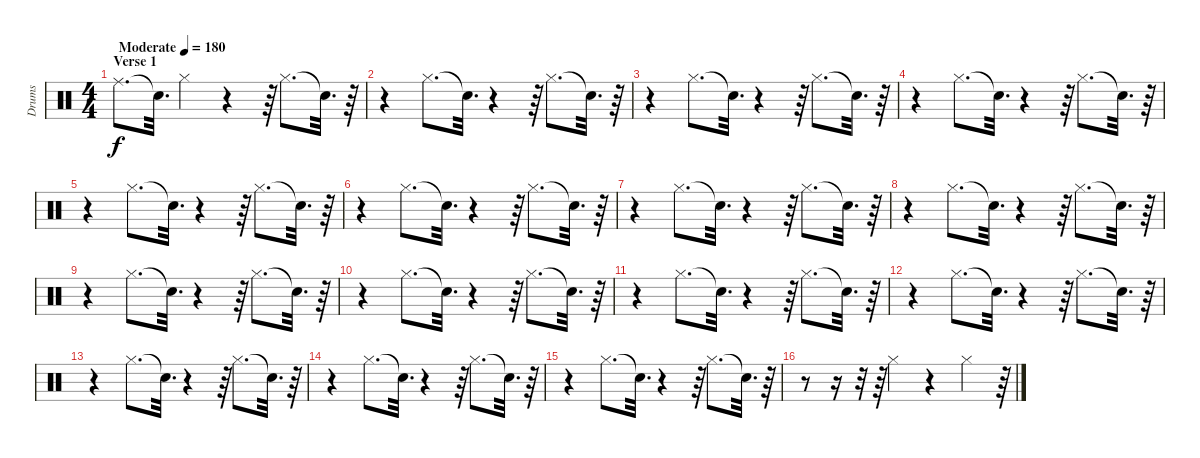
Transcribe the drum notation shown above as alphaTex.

\track ("Drums" "Drums") {instrument percussion}
\staff {score}
\articulation defaults
\ts (4 4)
\section ("" "Verse 1")
\tempo (180 "Moderate")
\clef neutral
\ks c "Ride (middle)".8{d dy f} "Snare (hit)"{t}.32{d} "Hi-Hat (closed)".4
r.4 r.64 "Hi-Hat (closed)".8{d} "Snare (hit)"{t}.32{d} r.64 |
r.4 "Hi-Hat (closed)".8{d} "Snare (hit)"{t}.32{d} r.4 r.64 "Hi-Hat (closed)".8{d} "Snare (hit)"{t}.32{d} r.64 |
r.4 "Hi-Hat (closed)".8{d} "Snare (hit)"{t}.32{d} r.4 r.64 "Hi-Hat (closed)".8{d} "Snare (hit)"{t}.32{d} r.64 |
r.4 "Hi-Hat (closed)".8{d} "Snare (hit)"{t}.32{d} r.4 r.64 "Hi-Hat (closed)".8{d} "Snare (hit)"{t}.32{d} r.64 |
r.4 "Hi-Hat (closed)".8{d} "Snare (hit)"{t}.32{d} r.4 r.64 "Hi-Hat (closed)".8{d} "Snare (hit)"{t}.32{d} r.64 |
r.4 "Hi-Hat (closed)".8{d} "Snare (hit)"{t}.32{d} r.4 r.64 "Hi-Hat (closed)".8{d} "Snare (hit)"{t}.32{d} r.64 |
r.4 "Hi-Hat (closed)".8{d} "Snare (hit)"{t}.32{d} r.4 r.64 "Hi-Hat (closed)".8{d} "Snare (hit)"{t}.32{d} r.64 |
r.4 "Hi-Hat (closed)".8{d} "Snare (hit)"{t}.32{d} r.4 r.64 "Hi-Hat (closed)".8{d} "Snare (hit)"{t}.32{d} r.64 |
r.4 "Hi-Hat (closed)".8{d} "Snare (hit)"{t}.32{d} r.4 r.64 "Hi-Hat (closed)".8{d} "Snare (hit)"{t}.32{d} r.64 |
r.4 "Hi-Hat (closed)".8{d} "Snare (hit)"{t}.32{d} r.4 r.64 "Hi-Hat (closed)".8{d} "Snare (hit)"{t}.32{d} r.64 |
r.4 "Hi-Hat (closed)".8{d} "Snare (hit)"{t}.32{d} r.4 r.64 "Hi-Hat (closed)".8{d} "Snare (hit)"{t}.32{d} r.64 |
r.4 "Hi-Hat (closed)".8{d} "Snare (hit)"{t}.32{d} r.4 r.64 "Hi-Hat (closed)".8{d} "Snare (hit)"{t}.32{d} r.64 |
r.4 "Hi-Hat (closed)".8{d} "Snare (hit)"{t}.32{d} r.4 r.64 "Hi-Hat (closed)".8{d} "Snare (hit)"{t}.32{d} r.64 |
r.4 "Hi-Hat (closed)".8{d} "Snare (hit)"{t}.32{d} r.4 r.64 "Hi-Hat (closed)".8{d} "Snare (hit)"{t}.32{d} r.64 |
r.4 "Hi-Hat (closed)".8{d} "Snare (hit)"{t}.32{d} r.4 r.64 "Hi-Hat (closed)".8{d} "Snare (hit)"{t}.32{d} r.64 |
r.8 r.16 r.32 r.64 "Hi-Hat (closed)".4 r.4 "Hi-Hat (closed)".4 r.64
